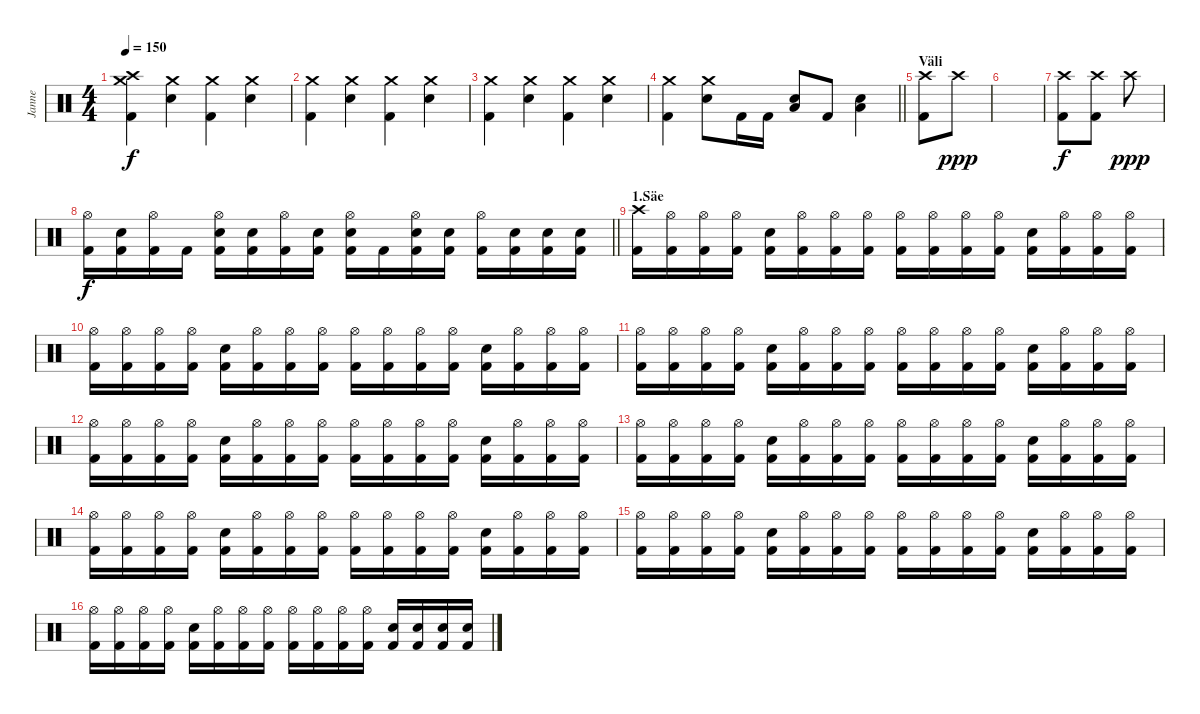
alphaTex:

\track ("Janne" "Janne") {instrument percussion}
\staff {score}
\articulation defaults
\ts (4 4)
\section ("" "")
\tempo 150
\clef neutral
\ks c
("Crash high (hit)" "Crash medium (hit)" "Kick (hit) 2").4{dy f} ("Crash medium (hit)" "Electric Snare (hit)").4 ("Crash medium (hit)" "Kick (hit) 2").4 ("Crash medium (hit)" "Electric Snare (hit)").4 |
("Crash medium (hit)" "Kick (hit) 2").4 ("Crash medium (hit)" "Electric Snare (hit)").4 ("Crash medium (hit)" "Kick (hit) 2").4 ("Crash medium (hit)" "Electric Snare (hit)").4 |
("Crash medium (hit)" "Kick (hit) 2").4 ("Crash medium (hit)" "Electric Snare (hit)").4 ("Crash medium (hit)" "Kick (hit) 2").4 ("Crash medium (hit)" "Electric Snare (hit)").4 |
\barLineRight lightlight
("Crash medium (hit)" "Kick (hit) 2").4 ("Crash medium (hit)" "Electric Snare (hit)").8 "Kick (hit) 2".16 "Kick (hit) 2".16 ("Electric Snare (hit)" "Low Floor Tom (hit)").8 "Kick (hit) 2".8 ("Electric Snare (hit)" "Low Floor Tom (hit)").4 |
\section ("" "Väli")
("Crash high (hit)" "Kick (hit) 2").8 "Crash high (hit)".8{dy ppp} |
|
("Crash high (hit)" "Kick (hit) 2").8{dy f} ("Crash high (hit)" "Kick (hit) 2").8 "Crash high (hit)".8{dy ppp} |
\barLineRight lightlight
("Hi-Hat (open)" "Kick (hit) 2").16{dy f} ("Electric Snare (hit)" "Kick (hit) 2").16 ("Hi-Hat (open)" "Kick (hit) 2").16 "Kick (hit) 2".16 ("Hi-Hat (open)" "Electric Snare (hit)" "Kick (hit) 2").16 ("Electric Snare (hit)" "Kick (hit) 2").16 ("Hi-Hat (open)" "Kick (hit) 2").16 ("Electric Snare (hit)" "Kick (hit) 2").16 ("Hi-Hat (open)" "Electric Snare (hit)" "Kick (hit) 2").16 "Kick (hit) 2".16 ("Hi-Hat (open)" "Electric Snare (hit)" "Kick (hit) 2").16 ("Electric Snare (hit)" "Kick (hit) 2").16 ("Hi-Hat (open)" "Kick (hit) 2").16 ("Electric Snare (hit)" "Kick (hit) 2").16 ("Electric Snare (hit)" "Kick (hit) 2").16 ("Electric Snare (hit)" "Kick (hit) 2").16 |
\section ("" "1.Säe")
("Crash high (hit)" "Kick (hit) 2").16 ("Hi-Hat (open)" "Kick (hit) 2").16 ("Hi-Hat (open)" "Kick (hit) 2").16 ("Hi-Hat (open)" "Kick (hit) 2").16 ("Electric Snare (hit)" "Kick (hit) 2").16 ("Hi-Hat (open)" "Kick (hit) 2").16 ("Hi-Hat (open)" "Kick (hit) 2").16 ("Hi-Hat (open)" "Kick (hit) 2").16 ("Hi-Hat (open)" "Kick (hit) 2").16 ("Hi-Hat (open)" "Kick (hit) 2").16 ("Hi-Hat (open)" "Kick (hit) 2").16 ("Hi-Hat (open)" "Kick (hit) 2").16 ("Electric Snare (hit)" "Kick (hit) 2").16 ("Hi-Hat (open)" "Kick (hit) 2").16 ("Hi-Hat (open)" "Kick (hit) 2").16 ("Hi-Hat (open)" "Kick (hit) 2").16 |
("Hi-Hat (open)" "Kick (hit) 2").16 ("Hi-Hat (open)" "Kick (hit) 2").16 ("Hi-Hat (open)" "Kick (hit) 2").16 ("Hi-Hat (open)" "Kick (hit) 2").16 ("Electric Snare (hit)" "Kick (hit) 2").16 ("Hi-Hat (open)" "Kick (hit) 2").16 ("Hi-Hat (open)" "Kick (hit) 2").16 ("Hi-Hat (open)" "Kick (hit) 2").16 ("Hi-Hat (open)" "Kick (hit) 2").16 ("Hi-Hat (open)" "Kick (hit) 2").16 ("Hi-Hat (open)" "Kick (hit) 2").16 ("Hi-Hat (open)" "Kick (hit) 2").16 ("Electric Snare (hit)" "Kick (hit) 2").16 ("Hi-Hat (open)" "Kick (hit) 2").16 ("Hi-Hat (open)" "Kick (hit) 2").16 ("Hi-Hat (open)" "Kick (hit) 2").16 |
("Hi-Hat (open)" "Kick (hit) 2").16 ("Hi-Hat (open)" "Kick (hit) 2").16 ("Hi-Hat (open)" "Kick (hit) 2").16 ("Hi-Hat (open)" "Kick (hit) 2").16 ("Electric Snare (hit)" "Kick (hit) 2").16 ("Hi-Hat (open)" "Kick (hit) 2").16 ("Hi-Hat (open)" "Kick (hit) 2").16 ("Hi-Hat (open)" "Kick (hit) 2").16 ("Hi-Hat (open)" "Kick (hit) 2").16 ("Hi-Hat (open)" "Kick (hit) 2").16 ("Hi-Hat (open)" "Kick (hit) 2").16 ("Hi-Hat (open)" "Kick (hit) 2").16 ("Electric Snare (hit)" "Kick (hit) 2").16 ("Hi-Hat (open)" "Kick (hit) 2").16 ("Hi-Hat (open)" "Kick (hit) 2").16 ("Hi-Hat (open)" "Kick (hit) 2").16 |
("Hi-Hat (open)" "Kick (hit) 2").16 ("Hi-Hat (open)" "Kick (hit) 2").16 ("Hi-Hat (open)" "Kick (hit) 2").16 ("Hi-Hat (open)" "Kick (hit) 2").16 ("Electric Snare (hit)" "Kick (hit) 2").16 ("Hi-Hat (open)" "Kick (hit) 2").16 ("Hi-Hat (open)" "Kick (hit) 2").16 ("Hi-Hat (open)" "Kick (hit) 2").16 ("Hi-Hat (open)" "Kick (hit) 2").16 ("Hi-Hat (open)" "Kick (hit) 2").16 ("Hi-Hat (open)" "Kick (hit) 2").16 ("Hi-Hat (open)" "Kick (hit) 2").16 ("Electric Snare (hit)" "Kick (hit) 2").16 ("Hi-Hat (open)" "Kick (hit) 2").16 ("Hi-Hat (open)" "Kick (hit) 2").16 ("Hi-Hat (open)" "Kick (hit) 2").16 |
("Hi-Hat (open)" "Kick (hit) 2").16 ("Hi-Hat (open)" "Kick (hit) 2").16 ("Hi-Hat (open)" "Kick (hit) 2").16 ("Hi-Hat (open)" "Kick (hit) 2").16 ("Electric Snare (hit)" "Kick (hit) 2").16 ("Hi-Hat (open)" "Kick (hit) 2").16 ("Hi-Hat (open)" "Kick (hit) 2").16 ("Hi-Hat (open)" "Kick (hit) 2").16 ("Hi-Hat (open)" "Kick (hit) 2").16 ("Hi-Hat (open)" "Kick (hit) 2").16 ("Hi-Hat (open)" "Kick (hit) 2").16 ("Hi-Hat (open)" "Kick (hit) 2").16 ("Electric Snare (hit)" "Kick (hit) 2").16 ("Hi-Hat (open)" "Kick (hit) 2").16 ("Hi-Hat (open)" "Kick (hit) 2").16 ("Hi-Hat (open)" "Kick (hit) 2").16 |
("Hi-Hat (open)" "Kick (hit) 2").16 ("Hi-Hat (open)" "Kick (hit) 2").16 ("Hi-Hat (open)" "Kick (hit) 2").16 ("Hi-Hat (open)" "Kick (hit) 2").16 ("Electric Snare (hit)" "Kick (hit) 2").16 ("Hi-Hat (open)" "Kick (hit) 2").16 ("Hi-Hat (open)" "Kick (hit) 2").16 ("Hi-Hat (open)" "Kick (hit) 2").16 ("Hi-Hat (open)" "Kick (hit) 2").16 ("Hi-Hat (open)" "Kick (hit) 2").16 ("Hi-Hat (open)" "Kick (hit) 2").16 ("Hi-Hat (open)" "Kick (hit) 2").16 ("Electric Snare (hit)" "Kick (hit) 2").16 ("Hi-Hat (open)" "Kick (hit) 2").16 ("Hi-Hat (open)" "Kick (hit) 2").16 ("Hi-Hat (open)" "Kick (hit) 2").16 |
("Hi-Hat (open)" "Kick (hit) 2").16 ("Hi-Hat (open)" "Kick (hit) 2").16 ("Hi-Hat (open)" "Kick (hit) 2").16 ("Hi-Hat (open)" "Kick (hit) 2").16 ("Electric Snare (hit)" "Kick (hit) 2").16 ("Hi-Hat (open)" "Kick (hit) 2").16 ("Hi-Hat (open)" "Kick (hit) 2").16 ("Hi-Hat (open)" "Kick (hit) 2").16 ("Hi-Hat (open)" "Kick (hit) 2").16 ("Hi-Hat (open)" "Kick (hit) 2").16 ("Hi-Hat (open)" "Kick (hit) 2").16 ("Hi-Hat (open)" "Kick (hit) 2").16 ("Electric Snare (hit)" "Kick (hit) 2").16 ("Hi-Hat (open)" "Kick (hit) 2").16 ("Hi-Hat (open)" "Kick (hit) 2").16 ("Hi-Hat (open)" "Kick (hit) 2").16 |
("Hi-Hat (open)" "Kick (hit) 2").16 ("Hi-Hat (open)" "Kick (hit) 2").16 ("Hi-Hat (open)" "Kick (hit) 2").16 ("Hi-Hat (open)" "Kick (hit) 2").16 ("Electric Snare (hit)" "Kick (hit) 2").16 ("Hi-Hat (open)" "Kick (hit) 2").16 ("Hi-Hat (open)" "Kick (hit) 2").16 ("Hi-Hat (open)" "Kick (hit) 2").16 ("Hi-Hat (open)" "Kick (hit) 2").16 ("Hi-Hat (open)" "Kick (hit) 2").16 ("Hi-Hat (open)" "Kick (hit) 2").16 ("Hi-Hat (open)" "Kick (hit) 2").16 ("Electric Snare (hit)" "Kick (hit) 2").16 ("Electric Snare (hit)" "Kick (hit) 2").16 ("Electric Snare (hit)" "Kick (hit) 2").16 ("Electric Snare (hit)" "Kick (hit) 2").16
